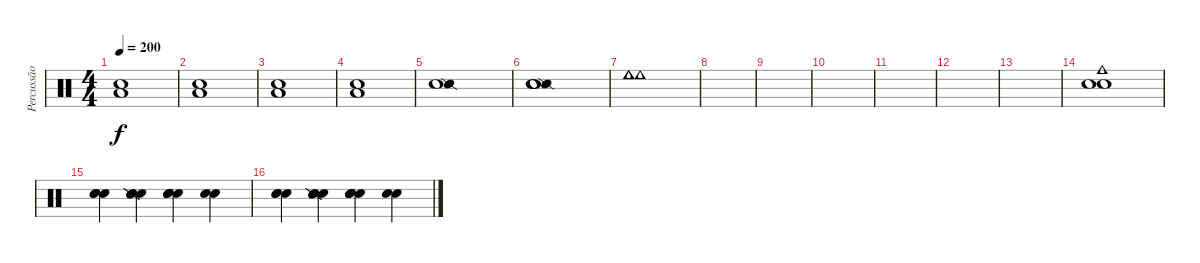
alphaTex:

\track ("Percussão" "Percussão") {instrument percussion}
\staff {score}
\articulation defaults
\ts (4 4)
\tempo 200
\clef neutral
\ks c
("Low Tom (hit)" "Snare (hit)").1{dy f} |
("Low Tom (hit)" "Snare (hit)").1 |
("Low Tom (hit)" "Snare (hit)").1 |
("Low Tom (hit)" "Snare (hit)").1 |
("Snare (side stick) 2" "Snare (hit)").1 |
("Snare (side stick) 2" "Snare (hit)" "Snare (hit)" "Snare (hit)").1 |
("Cowbell low (hit)" "Cowbell low (hit)" "Cowbell low (hit)").1 |
|
|
|
|
|
|
("Cowbell medium (hit)" "Snare (hit)" "Snare (hit)").1 |
("Metronome (bell)" "Snare (hit)" "Snare (hit)").4 ("Snare (hit)" "Snare (side stick) 2" "Snare (side stick) 2" "Snare (hit)").4 ("Snare (hit)" "Snare (hit)" "Snare (hit)" "Snare (hit)").4 ("Snare (hit)" "Snare (hit)").4 |
("Metronome (bell)" "Snare (hit)" "Snare (hit)").4 ("Snare (hit)" "Snare (side stick) 2" "Snare (side stick) 2" "Snare (hit)").4 ("Snare (hit)" "Snare (hit)" "Snare (hit)" "Snare (hit)").4 ("Snare (hit)" "Snare (hit)").4
